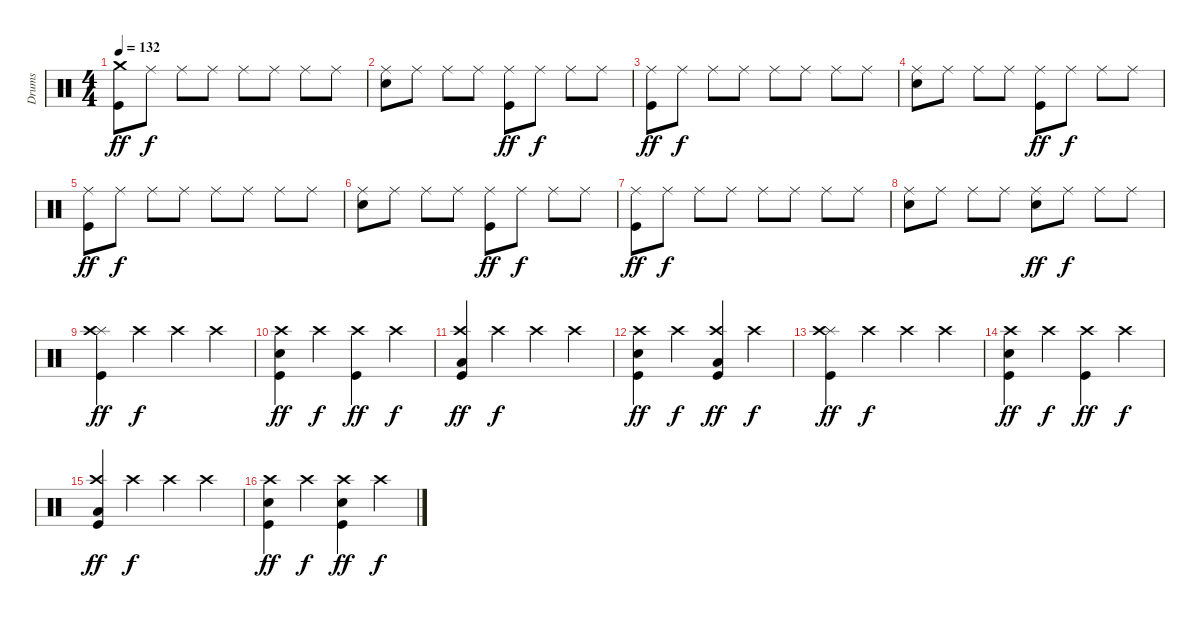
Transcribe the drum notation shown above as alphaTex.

\track ("Drums" "Drums") {instrument percussion}
\staff {score}
\articulation defaults
\ts (4 4)
\tempo 132
\clef neutral
\ks c
("Crash medium (hit)" "Kick (hit)").8{dy ff} "Ride (middle)".8{dy f} "Ride (middle)".8 "Ride (middle)".8 "Ride (middle)".8 "Ride (middle)".8 "Ride (middle)".8 "Ride (middle)".8 |
("Ride (middle)" "Electric Snare (hit)").8 "Ride (middle)".8 "Ride (middle)".8 "Ride (middle)".8 ("Ride (middle)" "Kick (hit)").8{dy ff} "Ride (middle)".8{dy f} "Ride (middle)".8 "Ride (middle)".8 |
("Ride (middle)" "Kick (hit)").8{dy ff} "Ride (middle)".8{dy f} "Ride (middle)".8 "Ride (middle)".8 "Ride (middle)".8 "Ride (middle)".8 "Ride (middle)".8 "Ride (middle)".8 |
("Ride (middle)" "Electric Snare (hit)").8 "Ride (middle)".8 "Ride (middle)".8 "Ride (middle)".8 ("Ride (middle)" "Kick (hit)").8{dy ff} "Ride (middle)".8{dy f} "Ride (middle)".8 "Ride (middle)".8 |
("Ride (middle)" "Kick (hit)").8{dy ff} "Ride (middle)".8{dy f} "Ride (middle)".8 "Ride (middle)".8 "Ride (middle)".8 "Ride (middle)".8 "Ride (middle)".8 "Ride (middle)".8 |
("Ride (middle)" "Electric Snare (hit)").8 "Ride (middle)".8 "Ride (middle)".8 "Ride (middle)".8 ("Ride (middle)" "Kick (hit)").8{dy ff} "Ride (middle)".8{dy f} "Ride (middle)".8 "Ride (middle)".8 |
("Ride (middle)" "Kick (hit)").8{dy ff} "Ride (middle)".8{dy f} "Ride (middle)".8 "Ride (middle)".8 "Ride (middle)".8 "Ride (middle)".8 "Ride (middle)".8 "Ride (middle)".8 |
("Ride (middle)" "Electric Snare (hit)").8 "Ride (middle)".8 "Ride (middle)".8 "Ride (middle)".8 ("Ride (middle)" "Electric Snare (hit)").8{dy ff} "Ride (middle)".8{dy f} "Ride (middle)".8 "Ride (middle)".8 |
("Splash (hit)" "Crash high (hit)" "Kick (hit)").4{dy ff} "Crash high (hit)".4{dy f} "Crash high (hit)".4 "Crash high (hit)".4 |
("Crash high (hit)" "Electric Snare (hit)" "Kick (hit)").4{dy ff} "Crash high (hit)".4{dy f} ("Crash high (hit)" "Kick (hit)").4{dy ff} "Crash high (hit)".4{dy f} |
("Crash high (hit)" "Low Floor Tom (hit)" "Kick (hit)").4{dy ff} "Crash high (hit)".4{dy f} "Crash high (hit)".4 "Crash high (hit)".4 |
("Crash high (hit)" "Electric Snare (hit)" "Kick (hit)").4{dy ff} "Crash high (hit)".4{dy f} ("Crash high (hit)" "Low Floor Tom (hit)" "Kick (hit)").4{dy ff} "Crash high (hit)".4{dy f} |
("Splash (hit)" "Crash high (hit)" "Kick (hit)").4{dy ff} "Crash high (hit)".4{dy f} "Crash high (hit)".4 "Crash high (hit)".4 |
("Crash high (hit)" "Electric Snare (hit)" "Kick (hit)").4{dy ff} "Crash high (hit)".4{dy f} ("Crash high (hit)" "Kick (hit)").4{dy ff} "Crash high (hit)".4{dy f} |
("Crash high (hit)" "Low Floor Tom (hit)" "Kick (hit)").4{dy ff} "Crash high (hit)".4{dy f} "Crash high (hit)".4 "Crash high (hit)".4 |
("Crash high (hit)" "Electric Snare (hit)" "Kick (hit)").4{dy ff} "Crash high (hit)".4{dy f} ("Crash high (hit)" "Electric Snare (hit)" "Kick (hit)").4{dy ff} "Crash high (hit)".4{dy f}
